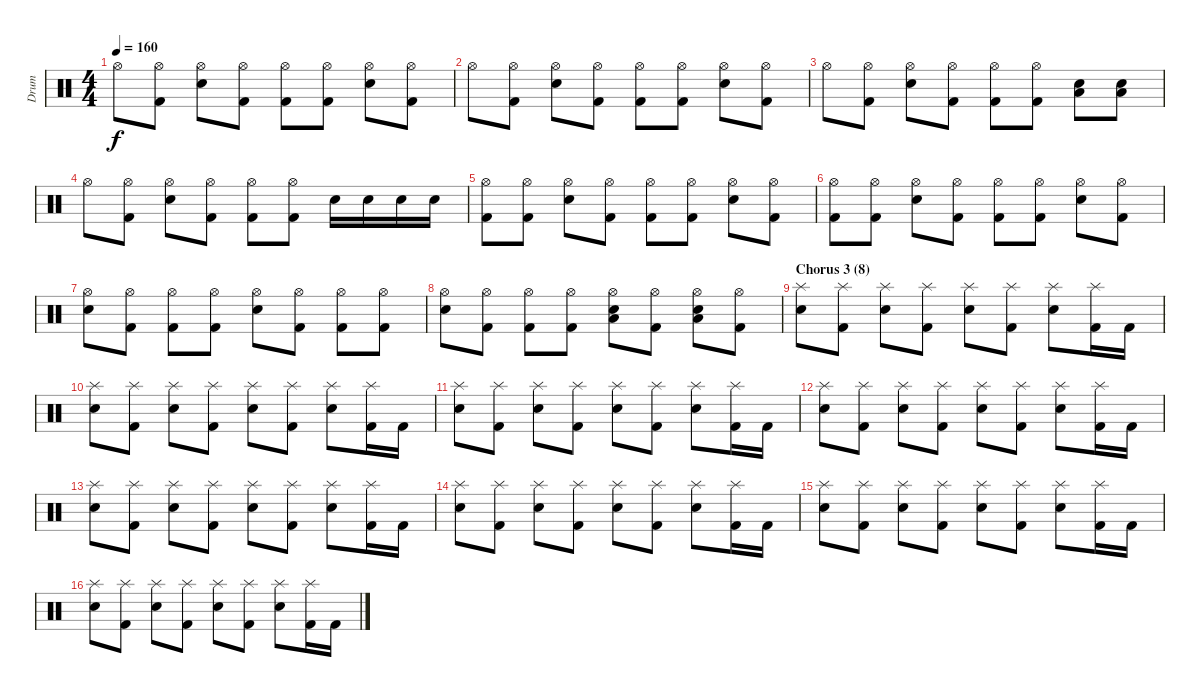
\track ("Drum" "Drum") {instrument percussion}
\staff {score}
\articulation defaults
\ts (4 4)
\tempo 160
\clef neutral
\ks c "Hi-Hat (open)".8{dy f}
("Hi-Hat (open)" "Kick (hit) 2").8 ("Hi-Hat (open)" "Snare (hit) 2").8 ("Hi-Hat (open)" "Kick (hit) 2").8 ("Hi-Hat (open)" "Kick (hit) 2").8 ("Hi-Hat (open)" "Kick (hit) 2").8 ("Hi-Hat (open)" "Snare (hit) 2").8 ("Hi-Hat (open)" "Kick (hit) 2").8 |
"Hi-Hat (open)".8 ("Hi-Hat (open)" "Kick (hit) 2").8 ("Hi-Hat (open)" "Snare (hit) 2").8 ("Hi-Hat (open)" "Kick (hit) 2").8 ("Hi-Hat (open)" "Kick (hit) 2").8 ("Hi-Hat (open)" "Kick (hit) 2").8 ("Hi-Hat (open)" "Snare (hit) 2").8 ("Hi-Hat (open)" "Kick (hit) 2").8 |
"Hi-Hat (open)".8 ("Hi-Hat (open)" "Kick (hit) 2").8 ("Hi-Hat (open)" "Snare (hit) 2").8 ("Hi-Hat (open)" "Kick (hit) 2").8 ("Hi-Hat (open)" "Kick (hit) 2").8 ("Hi-Hat (open)" "Kick (hit) 2").8 ("Low Floor Tom (hit)" "Snare (hit) 2").8 ("Low Floor Tom (hit)" "Snare (hit) 2").8 |
"Hi-Hat (open)".8 ("Hi-Hat (open)" "Kick (hit) 2").8 ("Hi-Hat (open)" "Snare (hit) 2").8 ("Hi-Hat (open)" "Kick (hit) 2").8 ("Hi-Hat (open)" "Kick (hit) 2").8 ("Hi-Hat (open)" "Kick (hit) 2").8 "Snare (hit) 2".16 "Snare (hit) 2".16 "Snare (hit) 2".16 "Snare (hit) 2".16 |
("Hi-Hat (open)" "Kick (hit) 2").8 ("Hi-Hat (open)" "Kick (hit) 2").8 ("Hi-Hat (open)" "Snare (hit) 2").8 ("Hi-Hat (open)" "Kick (hit) 2").8 ("Hi-Hat (open)" "Kick (hit) 2").8 ("Hi-Hat (open)" "Kick (hit) 2").8 ("Hi-Hat (open)" "Snare (hit) 2").8 ("Hi-Hat (open)" "Kick (hit) 2").8 |
("Hi-Hat (open)" "Kick (hit) 2").8 ("Hi-Hat (open)" "Kick (hit) 2").8 ("Hi-Hat (open)" "Snare (hit) 2").8 ("Hi-Hat (open)" "Kick (hit) 2").8 ("Hi-Hat (open)" "Kick (hit) 2").8 ("Hi-Hat (open)" "Kick (hit) 2").8 ("Hi-Hat (open)" "Snare (hit) 2").8 ("Hi-Hat (open)" "Kick (hit) 2").8 |
("Hi-Hat (open)" "Snare (hit) 2").8 ("Hi-Hat (open)" "Kick (hit) 2").8 ("Hi-Hat (open)" "Kick (hit) 2").8 ("Hi-Hat (open)" "Kick (hit) 2").8 ("Hi-Hat (open)" "Snare (hit) 2").8 ("Hi-Hat (open)" "Kick (hit) 2").8 ("Hi-Hat (open)" "Kick (hit) 2").8 ("Hi-Hat (open)" "Kick (hit) 2").8 |
("Hi-Hat (open)" "Snare (hit) 2").8 ("Hi-Hat (open)" "Kick (hit) 2").8 ("Hi-Hat (open)" "Kick (hit) 2").8 ("Hi-Hat (open)" "Kick (hit) 2").8 ("Hi-Hat (open)" "Low Floor Tom (hit)" "Snare (hit) 2").8 ("Hi-Hat (open)" "Kick (hit) 2").8 ("Hi-Hat (open)" "Low Floor Tom (hit)" "Snare (hit) 2").8 ("Hi-Hat (open)" "Kick (hit) 2").8 |
\section ("" "Chorus 3 (8)")
("Splash (hit)" "Snare (hit) 2").8 ("Splash (hit)" "Kick (hit) 2").8 ("Splash (hit)" "Snare (hit) 2").8 ("Splash (hit)" "Kick (hit) 2").8 ("Splash (hit)" "Snare (hit) 2").8 ("Splash (hit)" "Kick (hit) 2").8 ("Splash (hit)" "Snare (hit) 2").8 ("Splash (hit)" "Kick (hit) 2").16 "Kick (hit) 2".16 |
("Splash (hit)" "Snare (hit) 2").8 ("Splash (hit)" "Kick (hit) 2").8 ("Splash (hit)" "Snare (hit) 2").8 ("Splash (hit)" "Kick (hit) 2").8 ("Splash (hit)" "Snare (hit) 2").8 ("Splash (hit)" "Kick (hit) 2").8 ("Splash (hit)" "Snare (hit) 2").8 ("Splash (hit)" "Kick (hit) 2").16 "Kick (hit) 2".16 |
("Splash (hit)" "Snare (hit) 2").8 ("Splash (hit)" "Kick (hit) 2").8 ("Splash (hit)" "Snare (hit) 2").8 ("Splash (hit)" "Kick (hit) 2").8 ("Splash (hit)" "Snare (hit) 2").8 ("Splash (hit)" "Kick (hit) 2").8 ("Splash (hit)" "Snare (hit) 2").8 ("Splash (hit)" "Kick (hit) 2").16 "Kick (hit) 2".16 |
("Splash (hit)" "Snare (hit) 2").8 ("Splash (hit)" "Kick (hit) 2").8 ("Splash (hit)" "Snare (hit) 2").8 ("Splash (hit)" "Kick (hit) 2").8 ("Splash (hit)" "Snare (hit) 2").8 ("Splash (hit)" "Kick (hit) 2").8 ("Splash (hit)" "Snare (hit) 2").8 ("Splash (hit)" "Kick (hit) 2").16 "Kick (hit) 2".16 |
("Splash (hit)" "Snare (hit) 2").8 ("Splash (hit)" "Kick (hit) 2").8 ("Splash (hit)" "Snare (hit) 2").8 ("Splash (hit)" "Kick (hit) 2").8 ("Splash (hit)" "Snare (hit) 2").8 ("Splash (hit)" "Kick (hit) 2").8 ("Splash (hit)" "Snare (hit) 2").8 ("Splash (hit)" "Kick (hit) 2").16 "Kick (hit) 2".16 |
("Splash (hit)" "Snare (hit) 2").8 ("Splash (hit)" "Kick (hit) 2").8 ("Splash (hit)" "Snare (hit) 2").8 ("Splash (hit)" "Kick (hit) 2").8 ("Splash (hit)" "Snare (hit) 2").8 ("Splash (hit)" "Kick (hit) 2").8 ("Splash (hit)" "Snare (hit) 2").8 ("Splash (hit)" "Kick (hit) 2").16 "Kick (hit) 2".16 |
("Splash (hit)" "Snare (hit) 2").8 ("Splash (hit)" "Kick (hit) 2").8 ("Splash (hit)" "Snare (hit) 2").8 ("Splash (hit)" "Kick (hit) 2").8 ("Splash (hit)" "Snare (hit) 2").8 ("Splash (hit)" "Kick (hit) 2").8 ("Splash (hit)" "Snare (hit) 2").8 ("Splash (hit)" "Kick (hit) 2").16 "Kick (hit) 2".16 |
("Splash (hit)" "Snare (hit) 2").8 ("Splash (hit)" "Kick (hit) 2").8 ("Splash (hit)" "Snare (hit) 2").8 ("Splash (hit)" "Kick (hit) 2").8 ("Splash (hit)" "Snare (hit) 2").8 ("Splash (hit)" "Kick (hit) 2").8 ("Splash (hit)" "Snare (hit) 2").8 ("Splash (hit)" "Kick (hit) 2").16 "Kick (hit) 2".16
